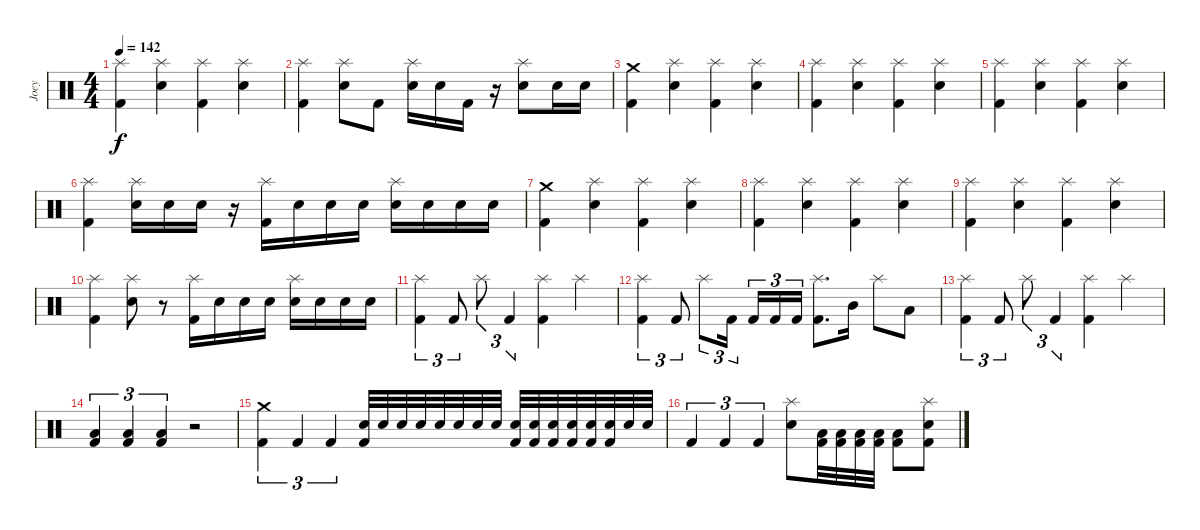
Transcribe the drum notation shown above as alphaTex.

\track ("Joey" "Joey") {instrument percussion}
\staff {score}
\articulation defaults
\ts (4 4)
\tempo 142
\clef neutral
\ks c
("Splash (hit)" "Kick (hit) 2").4{dy f} ("Splash (hit)" "Snare (hit) 2").4 ("Splash (hit)" "Kick (hit) 2").4 ("Splash (hit)" "Snare (hit) 2").4 |
("Splash (hit)" "Kick (hit) 2").4 ("Splash (hit)" "Snare (hit) 2").8 "Kick (hit) 2".8 ("Splash (hit)" "Snare (hit) 2").16 "Snare (hit) 2".16 "Kick (hit) 2".16 r.16 ("Splash (hit)" "Snare (hit) 2").8 "Snare (hit) 2".16 "Snare (hit) 2".16 |
("Crash medium (hit)" "Kick (hit) 2").4 ("Splash (hit)" "Snare (hit) 2").4 ("Splash (hit)" "Kick (hit) 2").4 ("Splash (hit)" "Snare (hit) 2").4 |
("Splash (hit)" "Kick (hit) 2").4 ("Splash (hit)" "Snare (hit) 2").4 ("Splash (hit)" "Kick (hit) 2").4 ("Splash (hit)" "Snare (hit) 2").4 |
("Splash (hit)" "Kick (hit) 2").4 ("Splash (hit)" "Snare (hit) 2").4 ("Splash (hit)" "Kick (hit) 2").4 ("Splash (hit)" "Snare (hit) 2").4 |
("Splash (hit)" "Kick (hit) 2").4 ("Splash (hit)" "Snare (hit) 2").16 "Snare (hit) 2".16 "Snare (hit) 2".16 r.16 ("Splash (hit)" "Kick (hit) 2").16 "Snare (hit) 2".16 "Snare (hit) 2".16 "Snare (hit) 2".16 ("Splash (hit)" "Snare (hit) 2").16 "Snare (hit) 2".16 "Snare (hit) 2".16 "Snare (hit) 2".16 |
("Crash medium (hit)" "Kick (hit) 2").4 ("Splash (hit)" "Snare (hit) 2").4 ("Splash (hit)" "Kick (hit) 2").4 ("Splash (hit)" "Snare (hit) 2").4 |
("Splash (hit)" "Kick (hit) 2").4 ("Splash (hit)" "Snare (hit) 2").4 ("Splash (hit)" "Kick (hit) 2").4 ("Splash (hit)" "Snare (hit) 2").4 |
("Splash (hit)" "Kick (hit) 2").4 ("Splash (hit)" "Snare (hit) 2").4 ("Splash (hit)" "Kick (hit) 2").4 ("Splash (hit)" "Snare (hit) 2").4 |
("Splash (hit)" "Kick (hit) 2").4 ("Splash (hit)" "Snare (hit) 2").8 r.8 ("Splash (hit)" "Kick (hit) 2").16 "Snare (hit) 2".16 "Snare (hit) 2".16 "Snare (hit) 2".16 ("Splash (hit)" "Snare (hit) 2").16 "Snare (hit) 2".16 "Snare (hit) 2".16 "Snare (hit) 2".16 |
("Splash (hit)" "Kick (hit) 2").4{tu (3 2)} "Kick (hit) 2".8{tu (3 2)} "Splash (hit)".8{tu (3 2)} "Kick (hit) 2".4{tu (3 2)} ("Splash (hit)" "Kick (hit) 2").4 "Splash (hit)".4 |
("Splash (hit)" "Kick (hit) 2").4{tu (3 2)} "Kick (hit) 2".8{tu (3 2)} "Splash (hit)".8{tu (3 2)} "Kick (hit) 2".16{tu (3 2) beam splitsecondary} "Kick (hit) 2".16{tu (3 2)} "Kick (hit) 2".16{tu (3 2)} "Kick (hit) 2".16{tu (3 2)} ("Splash (hit)" "Kick (hit) 2").8{d} "Mid Tom (hit)".16 "Splash (hit)".8 "Low Tom (hit)".8 |
("Splash (hit)" "Kick (hit) 2").4{tu (3 2)} "Kick (hit) 2".8{tu (3 2)} "Splash (hit)".8{tu (3 2)} "Kick (hit) 2".4{tu (3 2)} ("Splash (hit)" "Kick (hit) 2").4 "Splash (hit)".4 |
("Low Tom (hit)" "Kick (hit) 2").4{tu (3 2)} ("Low Tom (hit)" "Kick (hit) 2").4{tu (3 2)} ("Low Tom (hit)" "Kick (hit) 2").4{tu (3 2)} r.2 |
("Crash medium (hit)" "Kick (hit) 2").4{tu (3 2)} "Kick (hit) 2".4{tu (3 2)} "Kick (hit) 2".4{tu (3 2)} ("Snare (hit) 2" "Kick (hit) 2").32{volume 8} "Snare (hit) 2".32 "Snare (hit) 2".32 "Snare (hit) 2".32 "Snare (hit) 2".32 "Snare (hit) 2".32 "Snare (hit) 2".32 "Snare (hit) 2".32 ("Snare (hit) 2" "Kick (hit) 2").32 ("Snare (hit) 2" "Kick (hit) 2").32 ("Snare (hit) 2" "Kick (hit) 2").32 ("Snare (hit) 2" "Kick (hit) 2").32 ("Snare (hit) 2" "Kick (hit) 2").32 ("Snare (hit) 2" "Kick (hit) 2").32 "Snare (hit) 2".32 "Snare (hit) 2".32 |
"Kick (hit) 2".4{tu (3 2) volume 16} "Kick (hit) 2".4{tu (3 2)} "Kick (hit) 2".4{tu (3 2)} ("Splash (hit)" "Snare (hit) 2").8 ("Low Tom (hit)" "Kick (hit) 2").32 ("Low Tom (hit)" "Kick (hit) 2").32 ("Low Tom (hit)" "Kick (hit) 2").32 ("Low Tom (hit)" "Kick (hit) 2").32 ("Low Tom (hit)" "Kick (hit) 2").8 ("Splash (hit)" "Snare (hit) 2" "Kick (hit) 2").8
